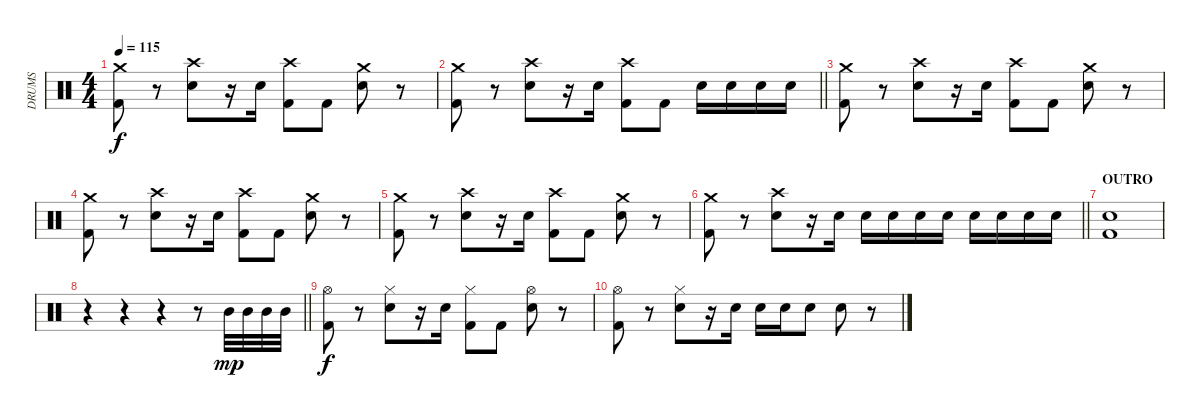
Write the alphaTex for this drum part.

\track ("DRUMS" "DRUMS") {instrument percussion}
\staff {score}
\articulation defaults
\ts (4 4)
\tempo 115
\clef neutral
\ks c
("Crash medium (hit)" "Kick (hit) 2").8{dy f} r.8 ("Crash high (hit)" "Electric Snare (hit)").8 r.16 "Electric Snare (hit)".16 ("Crash high (hit)" "Kick (hit) 2").8 "Kick (hit) 2".8 ("Crash medium (hit)" "Electric Snare (hit)").8 r.8 |
\barLineRight lightlight
("Crash medium (hit)" "Kick (hit) 2").8 r.8 ("Crash high (hit)" "Electric Snare (hit)").8 r.16 "Electric Snare (hit)".16 ("Crash high (hit)" "Kick (hit) 2").8 "Kick (hit) 2".8 "Electric Snare (hit)".16 "Electric Snare (hit)".16 "Electric Snare (hit)".16 "Electric Snare (hit)".16 |
("Crash medium (hit)" "Kick (hit) 2").8 r.8 ("Crash high (hit)" "Electric Snare (hit)").8 r.16 "Electric Snare (hit)".16 ("Crash high (hit)" "Kick (hit) 2").8 "Kick (hit) 2".8 ("Crash medium (hit)" "Electric Snare (hit)").8 r.8 |
("Crash medium (hit)" "Kick (hit) 2").8 r.8 ("Crash high (hit)" "Electric Snare (hit)").8 r.16 "Electric Snare (hit)".16 ("Crash high (hit)" "Kick (hit) 2").8 "Kick (hit) 2".8 ("Crash medium (hit)" "Electric Snare (hit)").8 r.8 |
("Crash medium (hit)" "Kick (hit) 2").8 r.8 ("Crash high (hit)" "Electric Snare (hit)").8 r.16 "Electric Snare (hit)".16 ("Crash high (hit)" "Kick (hit) 2").8 "Kick (hit) 2".8 ("Crash medium (hit)" "Electric Snare (hit)").8 r.8 |
\barLineRight lightlight
("Crash medium (hit)" "Kick (hit) 2").8 r.8 ("Crash high (hit)" "Electric Snare (hit)").8 r.16 "Electric Snare (hit)".16 "Electric Snare (hit)".16 "Electric Snare (hit)".16 "Electric Snare (hit)".16 "Electric Snare (hit)".16 "Electric Snare (hit)".16 "Electric Snare (hit)".16 "Electric Snare (hit)".16 "Electric Snare (hit)".16 |
\section ("" "OUTRO")
("Electric Snare (hit)" "Kick (hit) 2").1 |
\barLineRight lightlight
r.4 r.4 r.4 r.8 "Mid Tom (hit)".32{dy mp} "Mid Tom (hit)".32 "Mid Tom (hit)".32 "Mid Tom (hit)".32 |
("Hi-Hat (open)" "Kick (hit) 2").8{dy f} r.8 ("Hi-Hat (closed)" "Electric Snare (hit)").8 r.16 "Electric Snare (hit)".16 ("Hi-Hat (closed)" "Kick (hit) 2").8 "Kick (hit) 2".8 ("Hi-Hat (open)" "Electric Snare (hit)").8 r.8 |
("Hi-Hat (open)" "Kick (hit) 2").8 r.8 ("Hi-Hat (closed)" "Electric Snare (hit)").8 r.16 "Electric Snare (hit)".16 "Electric Snare (hit)".16 "Electric Snare (hit)".16 "Electric Snare (hit)".8 "Electric Snare (hit)".8 r.8
